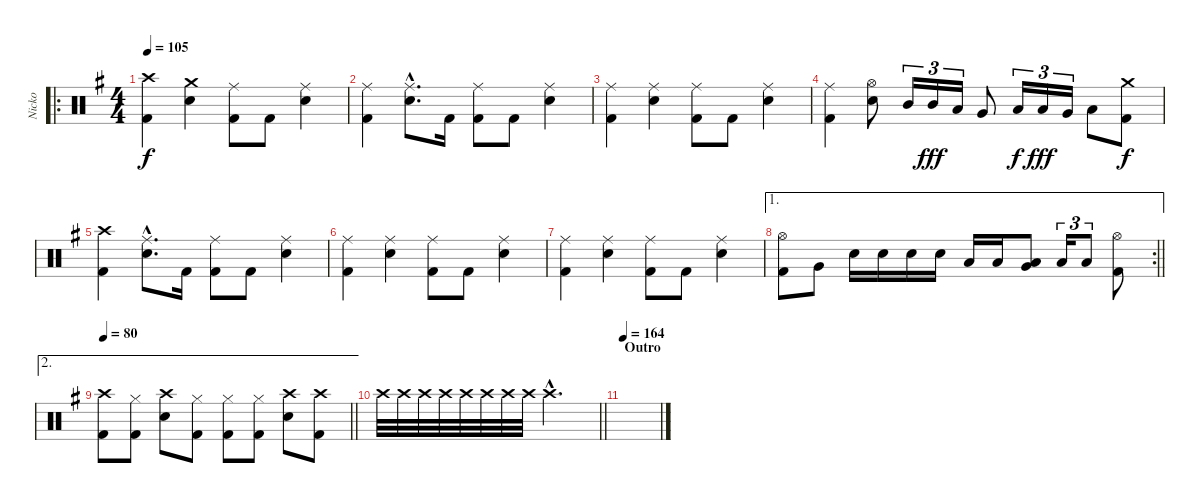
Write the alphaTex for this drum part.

\track ("Nicko" "Nicko") {instrument percussion}
\staff {score}
\articulation defaults
\ro
\ts (4 4)
\tempo 105
\clef neutral
\ks eminor
("Crash high (hit)" "Kick (hit) 2").4{dy f} ("Crash medium (hit)" "Snare (hit) 2").4 ("Ride (middle)" "Kick (hit) 2").8 "Kick (hit) 2".8 ("Ride (middle)" "Snare (hit) 2").4 |
("Ride (middle)" "Kick (hit) 2").4 ("Ride (middle)"{hac} "Snare (hit) 2"{hac}).8{d} "Kick (hit) 2".16 ("Ride (middle)" "Kick (hit) 2").8 "Kick (hit) 2".8 ("Ride (middle)" "Snare (hit) 2").4 |
("Ride (middle)" "Kick (hit) 2").4 ("Ride (middle)" "Snare (hit) 2").4 ("Ride (middle)" "Kick (hit) 2").8 "Kick (hit) 2".8 ("Ride (middle)" "Snare (hit) 2").4 |
("Ride (middle)" "Kick (hit) 2").4 ("Hi-Hat (open)" "Snare (hit) 2").8 "Mid Tom (hit)".16{tu (3 2)} "Mid Tom (hit)".16{tu (3 2) dy fff} "Low Tom (hit)".16{tu (3 2)} "Very Low Tom (hit)".8 "Low Tom (hit)".16{tu (3 2) dy f} "Low Tom (hit)".16{tu (3 2) dy fff} "Very Low Tom (hit)".16{tu (3 2)} "Low Floor Tom (hit)".8 ("Crash medium (hit)" "Kick (hit) 2").8{dy f} |
("Crash high (hit)" "Kick (hit) 2").4 ("Ride (middle)"{hac} "Snare (hit) 2"{hac}).8{d} "Kick (hit) 2".16 ("Ride (middle)" "Kick (hit) 2").8 "Kick (hit) 2".8 ("Ride (middle)" "Snare (hit) 2").4 |
("Ride (middle)" "Kick (hit) 2").4 ("Ride (middle)" "Snare (hit) 2").4 ("Ride (middle)" "Kick (hit) 2").8 "Kick (hit) 2".8 ("Ride (middle)" "Snare (hit) 2").4 |
("Ride (middle)" "Kick (hit) 2").4 ("Ride (middle)" "Snare (hit) 2").4 ("Ride (middle)" "Kick (hit) 2").8 "Kick (hit) 2".8 ("Ride (middle)" "Snare (hit) 2").4 |
\ae 1
\rc 2
\barLineRight lightlight
("Hi-Hat (open)" "Kick (hit) 2").8 "Very Low Tom (hit)".8 "Snare (hit) 2".16 "Snare (hit) 2".16 "Snare (hit) 2".16 "Snare (hit) 2".16 "Low Tom (hit)".16 "Low Tom (hit)".16 ("Very Low Tom (hit)" "Low Floor Tom (hit)").8 "Low Tom (hit)".16{tu (3 2)} "Low Tom (hit)".8{tu (3 2)} ("Hi-Hat (open)" "Kick (hit) 2").8 |
\ae 2
\tempo 80
\barLineRight lightlight
("Crash high (hit)" "Kick (hit) 2").8 ("Hi-Hat (closed)" "Kick (hit) 2").8 ("Crash high (hit)" "Snare (hit) 2").8 ("Hi-Hat (closed)" "Kick (hit) 2").8 ("Hi-Hat (closed)" "Kick (hit) 2").8 ("Hi-Hat (closed)" "Kick (hit) 2").8 ("Crash high (hit)" "Snare (hit) 2").8 ("Crash high (hit)" "Kick (hit) 2").8 |
\barLineRight lightlight "Crash high (hit)".32 "Crash high (hit)".32 "Crash high (hit)".32 "Crash high (hit)".32 "Crash high (hit)".32 "Crash high (hit)".32 "Crash high (hit)".32 "Crash high (hit)".32 "Crash high (hit)"{hac}.2{d}
|
\section ("" "Outro")
\tempo 164
